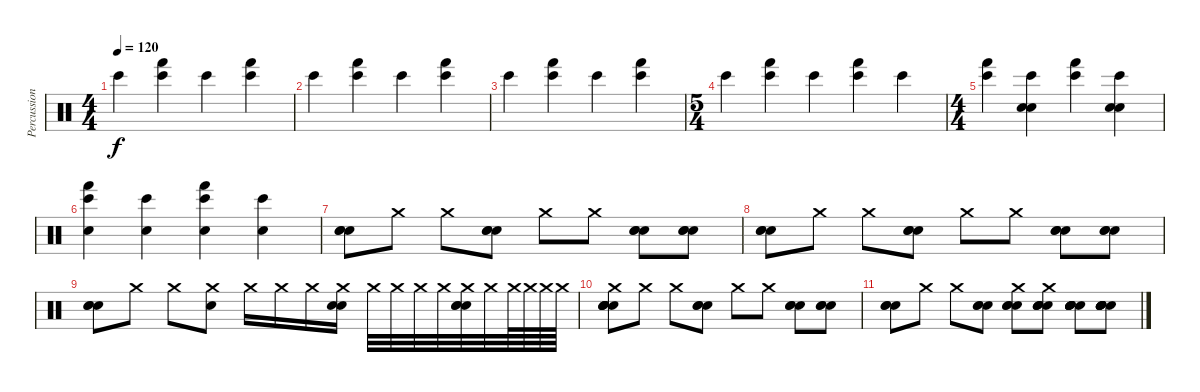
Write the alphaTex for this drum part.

\track ("Percussion" "Percussion") {instrument percussion}
\staff {score}
\articulation defaults
\ts (4 4)
\tempo 120
\clef neutral
\ks c "Bongo High (hit)".4{dy f}
("Bongo High (hit)" "Hand (hit)").4 "Bongo High (hit)".4 ("Bongo High (hit)" "Hand (hit)").4 |
"Bongo High (hit)".4 ("Bongo High (hit)" "Hand (hit)").4 "Bongo High (hit)".4 ("Bongo High (hit)" "Hand (hit)").4 |
"Bongo High (hit)".4 ("Bongo High (hit)" "Hand (hit)").4 "Bongo High (hit)".4 ("Bongo High (hit)" "Hand (hit)").4 |
\ts (5 4)
"Bongo High (hit)".4 ("Bongo High (hit)" "Hand (hit)").4 "Bongo High (hit)".4 ("Bongo High (hit)" "Hand (hit)").4 "Bongo High (hit)".4 |
\ts (4 4)
("Bongo High (hit)" "Hand (hit)").4{volume 12} ("Bongo High (hit)" "Hand Clap (hit)" "Snare (hit) 2").4 ("Bongo High (hit)" "Hand (hit)").4 ("Bongo High (hit)" "Hand Clap (hit)" "Snare (hit) 2").4 |
("Bongo High (hit)" "Snare (hit) 2" "Hand (hit)").4 ("Bongo High (hit)" "Hand Clap (hit)").4 ("Bongo High (hit)" "Snare (hit) 2" "Hand (hit)").4 ("Bongo High (hit)" "Hand Clap (hit)").4 |
("Hand Clap (hit)" "Snare (hit) 2" "Snare (hit) 2").8 "Crash medium (hit)".8 "Crash medium (hit)".8 ("Hand Clap (hit)" "Snare (hit) 2" "Snare (hit) 2").8 "Crash medium (hit)".8 "Crash medium (hit)".8 ("Hand Clap (hit)" "Snare (hit) 2" "Snare (hit) 2").8 ("Hand Clap (hit)" "Snare (hit) 2" "Snare (hit) 2").8 |
("Hand Clap (hit)" "Snare (hit) 2" "Snare (hit) 2").8 "Crash medium (hit)".8 "Crash medium (hit)".8 ("Hand Clap (hit)" "Snare (hit) 2" "Snare (hit) 2").8 "Crash medium (hit)".8 "Crash medium (hit)".8 ("Hand Clap (hit)" "Snare (hit) 2" "Snare (hit) 2").8 ("Hand Clap (hit)" "Snare (hit) 2" "Snare (hit) 2").8 |
("Hand Clap (hit)" "Snare (hit) 2" "Snare (hit) 2").8 "Crash medium (hit)".8 "Crash medium (hit)".8 ("Crash medium (hit)" "Snare (hit) 2").8 "Crash medium (hit)".16 "Crash medium (hit)".16 "Crash medium (hit)".16 ("Crash medium (hit)" "Snare (hit) 2" "Snare (hit) 2").16 "Crash medium (hit)".32 "Crash medium (hit)".32 "Crash medium (hit)".32 "Crash medium (hit)".32 ("Crash medium (hit)" "Snare (hit) 2" "Snare (hit) 2" "Snare (hit) 2").32 "Crash medium (hit)".32 "Crash medium (hit)".64 "Crash medium (hit)".64 "Crash medium (hit)".64 "Crash medium (hit)".64 |
("Hand Clap (hit)" "Crash medium (hit)" "Snare (hit) 2" "Snare (hit) 2" "Snare (hit) 2" "Snare (hit) 2").8 "Crash medium (hit)".8 "Crash medium (hit)".8 ("Hand Clap (hit)" "Snare (hit) 2" "Snare (hit) 2").8 "Crash medium (hit)".8 "Crash medium (hit)".8 ("Hand Clap (hit)" "Snare (hit) 2" "Snare (hit) 2").8 ("Hand Clap (hit)" "Snare (hit) 2" "Snare (hit) 2").8 |
("Hand Clap (hit)" "Snare (hit) 2" "Snare (hit) 2").8 "Crash medium (hit)".8 "Crash medium (hit)".8 ("Hand Clap (hit)" "Snare (hit) 2" "Snare (hit) 2").8 ("Crash medium (hit)" "Snare (hit) 2" "Snare (hit) 2" "Snare (hit) 2").8 ("Crash medium (hit)" "Snare (hit) 2" "Snare (hit) 2" "Snare (hit) 2" "Snare (hit) 2").8 ("Hand Clap (hit)" "Snare (hit) 2" "Snare (hit) 2" "Snare (hit) 2" "Snare (hit) 2" "Snare (hit) 2").8 ("Snare (hit) 2" "Snare (hit) 2" "Snare (hit) 2" "Snare (hit) 2" "Snare (hit) 2" "Snare (hit) 2").8
